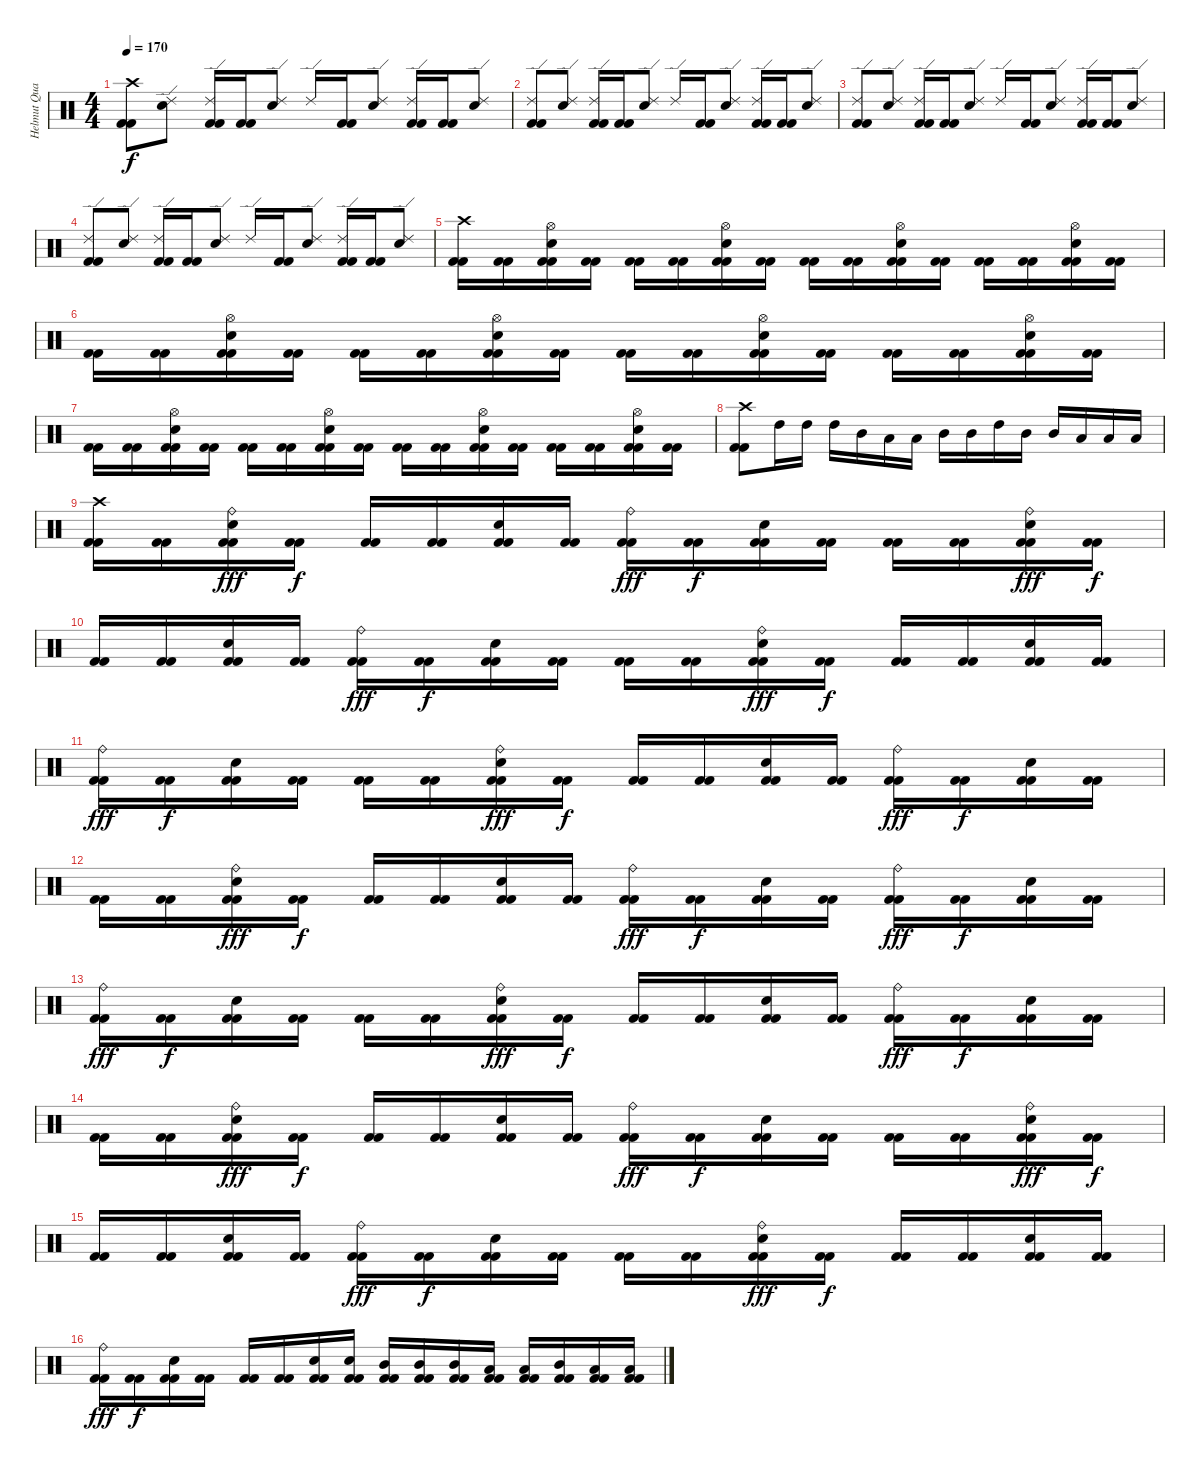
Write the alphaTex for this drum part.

\track ("Helmut Quacken" "Helmut Qua") {instrument percussion}
\staff {score}
\articulation defaults
\ts (4 4)
\tempo 170
\clef neutral
\ks c
("Crash high (hit)" "Kick (hit) 2" "Kick (hit) 2").8{dy f} ("Ride (edge) 2" "Electric Snare (hit)").8 ("Ride (edge) 2" "Kick (hit) 2" "Kick (hit) 2").16 ("Kick (hit) 2" "Kick (hit) 2").16 ("Ride (edge) 2" "Electric Snare (hit)").8 "Ride (edge) 2".16 ("Kick (hit) 2" "Kick (hit) 2").16 ("Ride (edge) 2" "Electric Snare (hit)").8 ("Ride (edge) 2" "Kick (hit) 2" "Kick (hit) 2").16 ("Kick (hit) 2" "Kick (hit) 2").16 ("Ride (edge) 2" "Electric Snare (hit)").8 |
("Ride (edge) 2" "Kick (hit) 2" "Kick (hit) 2").8 ("Ride (edge) 2" "Electric Snare (hit)").8 ("Ride (edge) 2" "Kick (hit) 2" "Kick (hit) 2").16 ("Kick (hit) 2" "Kick (hit) 2").16 ("Ride (edge) 2" "Electric Snare (hit)").8 "Ride (edge) 2".16 ("Kick (hit) 2" "Kick (hit) 2").16 ("Ride (edge) 2" "Electric Snare (hit)").8 ("Ride (edge) 2" "Kick (hit) 2" "Kick (hit) 2").16 ("Kick (hit) 2" "Kick (hit) 2").16 ("Ride (edge) 2" "Electric Snare (hit)").8 |
("Ride (edge) 2" "Kick (hit) 2" "Kick (hit) 2").8 ("Ride (edge) 2" "Electric Snare (hit)").8 ("Ride (edge) 2" "Kick (hit) 2" "Kick (hit) 2").16 ("Kick (hit) 2" "Kick (hit) 2").16 ("Ride (edge) 2" "Electric Snare (hit)").8 "Ride (edge) 2".16 ("Kick (hit) 2" "Kick (hit) 2").16 ("Ride (edge) 2" "Electric Snare (hit)").8 ("Ride (edge) 2" "Kick (hit) 2" "Kick (hit) 2").16 ("Kick (hit) 2" "Kick (hit) 2").16 ("Ride (edge) 2" "Electric Snare (hit)").8 |
("Ride (edge) 2" "Kick (hit) 2" "Kick (hit) 2").8 ("Ride (edge) 2" "Electric Snare (hit)").8 ("Ride (edge) 2" "Kick (hit) 2" "Kick (hit) 2").16 ("Kick (hit) 2" "Kick (hit) 2").16 ("Ride (edge) 2" "Electric Snare (hit)").8 "Ride (edge) 2".16 ("Kick (hit) 2" "Kick (hit) 2").16 ("Ride (edge) 2" "Electric Snare (hit)").8 ("Ride (edge) 2" "Kick (hit) 2" "Kick (hit) 2").16 ("Kick (hit) 2" "Kick (hit) 2").16 ("Ride (edge) 2" "Electric Snare (hit)").8 |
("Crash high (hit)" "Kick (hit) 2" "Kick (hit) 2").16 ("Kick (hit) 2" "Kick (hit) 2").16 ("Hi-Hat (open)" "Electric Snare (hit)" "Kick (hit) 2" "Kick (hit) 2").16 ("Kick (hit) 2" "Kick (hit) 2").16 ("Kick (hit) 2" "Kick (hit) 2").16 ("Kick (hit) 2" "Kick (hit) 2").16 ("Hi-Hat (open)" "Electric Snare (hit)" "Kick (hit) 2" "Kick (hit) 2").16 ("Kick (hit) 2" "Kick (hit) 2").16 ("Kick (hit) 2" "Kick (hit) 2").16 ("Kick (hit) 2" "Kick (hit) 2").16 ("Hi-Hat (open)" "Electric Snare (hit)" "Kick (hit) 2" "Kick (hit) 2").16 ("Kick (hit) 2" "Kick (hit) 2").16 ("Kick (hit) 2" "Kick (hit) 2").16 ("Kick (hit) 2" "Kick (hit) 2").16 ("Hi-Hat (open)" "Electric Snare (hit)" "Kick (hit) 2" "Kick (hit) 2").16 ("Kick (hit) 2" "Kick (hit) 2").16 |
("Kick (hit) 2" "Kick (hit) 2").16 ("Kick (hit) 2" "Kick (hit) 2").16 ("Hi-Hat (open)" "Electric Snare (hit)" "Kick (hit) 2" "Kick (hit) 2").16 ("Kick (hit) 2" "Kick (hit) 2").16 ("Kick (hit) 2" "Kick (hit) 2").16 ("Kick (hit) 2" "Kick (hit) 2").16 ("Hi-Hat (open)" "Electric Snare (hit)" "Kick (hit) 2" "Kick (hit) 2").16 ("Kick (hit) 2" "Kick (hit) 2").16 ("Kick (hit) 2" "Kick (hit) 2").16 ("Kick (hit) 2" "Kick (hit) 2").16 ("Hi-Hat (open)" "Electric Snare (hit)" "Kick (hit) 2" "Kick (hit) 2").16 ("Kick (hit) 2" "Kick (hit) 2").16 ("Kick (hit) 2" "Kick (hit) 2").16 ("Kick (hit) 2" "Kick (hit) 2").16 ("Hi-Hat (open)" "Electric Snare (hit)" "Kick (hit) 2" "Kick (hit) 2").16 ("Kick (hit) 2" "Kick (hit) 2").16 |
("Kick (hit) 2" "Kick (hit) 2").16 ("Kick (hit) 2" "Kick (hit) 2").16 ("Hi-Hat (open)" "Electric Snare (hit)" "Kick (hit) 2" "Kick (hit) 2").16 ("Kick (hit) 2" "Kick (hit) 2").16 ("Kick (hit) 2" "Kick (hit) 2").16 ("Kick (hit) 2" "Kick (hit) 2").16 ("Hi-Hat (open)" "Electric Snare (hit)" "Kick (hit) 2" "Kick (hit) 2").16 ("Kick (hit) 2" "Kick (hit) 2").16 ("Kick (hit) 2" "Kick (hit) 2").16 ("Kick (hit) 2" "Kick (hit) 2").16 ("Hi-Hat (open)" "Electric Snare (hit)" "Kick (hit) 2" "Kick (hit) 2").16 ("Kick (hit) 2" "Kick (hit) 2").16 ("Kick (hit) 2" "Kick (hit) 2").16 ("Kick (hit) 2" "Kick (hit) 2").16 ("Hi-Hat (open)" "Electric Snare (hit)" "Kick (hit) 2" "Kick (hit) 2").16 ("Kick (hit) 2" "Kick (hit) 2").16 |
("Crash high (hit)" "Kick (hit) 2" "Kick (hit) 2").8 "High Tom (hit)".16 "High Tom (hit)".16 "High Tom (hit)".16 "Mid Tom (hit)".16 "Low Tom (hit)".16 "Low Tom (hit)".16 "Mid Tom (hit)".16 "Mid Tom (hit)".16 "High Tom (hit)".16 "Mid Tom (hit)".16 "Mid Tom (hit)".16 "Low Tom (hit)".16 "Low Tom (hit)".16 "Low Tom (hit)".16 |
("Crash high (hit)" "Kick (hit) 2" "Kick (hit) 2").16 ("Kick (hit) 2" "Kick (hit) 2").16 ("Ride (bell)" "Electric Snare (hit)" "Kick (hit) 2" "Kick (hit) 2").16{dy fff} ("Kick (hit) 2" "Kick (hit) 2").16{dy f} ("Kick (hit) 2" "Kick (hit) 2").16 ("Kick (hit) 2" "Kick (hit) 2").16 ("Electric Snare (hit)" "Kick (hit) 2" "Kick (hit) 2").16 ("Kick (hit) 2" "Kick (hit) 2").16 ("Ride (bell)" "Kick (hit) 2" "Kick (hit) 2").16{dy fff} ("Kick (hit) 2" "Kick (hit) 2").16{dy f} ("Electric Snare (hit)" "Kick (hit) 2" "Kick (hit) 2").16 ("Kick (hit) 2" "Kick (hit) 2").16 ("Kick (hit) 2" "Kick (hit) 2").16 ("Kick (hit) 2" "Kick (hit) 2").16 ("Ride (bell)" "Electric Snare (hit)" "Kick (hit) 2" "Kick (hit) 2").16{dy fff} ("Kick (hit) 2" "Kick (hit) 2").16{dy f} |
("Kick (hit) 2" "Kick (hit) 2").16 ("Kick (hit) 2" "Kick (hit) 2").16 ("Electric Snare (hit)" "Kick (hit) 2" "Kick (hit) 2").16 ("Kick (hit) 2" "Kick (hit) 2").16 ("Ride (bell)" "Kick (hit) 2" "Kick (hit) 2").16{dy fff} ("Kick (hit) 2" "Kick (hit) 2").16{dy f} ("Electric Snare (hit)" "Kick (hit) 2" "Kick (hit) 2").16 ("Kick (hit) 2" "Kick (hit) 2").16 ("Kick (hit) 2" "Kick (hit) 2").16 ("Kick (hit) 2" "Kick (hit) 2").16 ("Ride (bell)" "Electric Snare (hit)" "Kick (hit) 2" "Kick (hit) 2").16{dy fff} ("Kick (hit) 2" "Kick (hit) 2").16{dy f} ("Kick (hit) 2" "Kick (hit) 2").16 ("Kick (hit) 2" "Kick (hit) 2").16 ("Electric Snare (hit)" "Kick (hit) 2" "Kick (hit) 2").16 ("Kick (hit) 2" "Kick (hit) 2").16 |
("Ride (bell)" "Kick (hit) 2" "Kick (hit) 2").16{dy fff} ("Kick (hit) 2" "Kick (hit) 2").16{dy f} ("Electric Snare (hit)" "Kick (hit) 2" "Kick (hit) 2").16 ("Kick (hit) 2" "Kick (hit) 2").16 ("Kick (hit) 2" "Kick (hit) 2").16 ("Kick (hit) 2" "Kick (hit) 2").16 ("Ride (bell)" "Electric Snare (hit)" "Kick (hit) 2" "Kick (hit) 2").16{dy fff} ("Kick (hit) 2" "Kick (hit) 2").16{dy f} ("Kick (hit) 2" "Kick (hit) 2").16 ("Kick (hit) 2" "Kick (hit) 2").16 ("Electric Snare (hit)" "Kick (hit) 2" "Kick (hit) 2").16 ("Kick (hit) 2" "Kick (hit) 2").16 ("Ride (bell)" "Kick (hit) 2" "Kick (hit) 2").16{dy fff} ("Kick (hit) 2" "Kick (hit) 2").16{dy f} ("Electric Snare (hit)" "Kick (hit) 2" "Kick (hit) 2").16 ("Kick (hit) 2" "Kick (hit) 2").16 |
("Kick (hit) 2" "Kick (hit) 2").16 ("Kick (hit) 2" "Kick (hit) 2").16 ("Ride (bell)" "Electric Snare (hit)" "Kick (hit) 2" "Kick (hit) 2").16{dy fff} ("Kick (hit) 2" "Kick (hit) 2").16{dy f} ("Kick (hit) 2" "Kick (hit) 2").16 ("Kick (hit) 2" "Kick (hit) 2").16 ("Electric Snare (hit)" "Kick (hit) 2" "Kick (hit) 2").16 ("Kick (hit) 2" "Kick (hit) 2").16 ("Ride (bell)" "Kick (hit) 2" "Kick (hit) 2").16{dy fff} ("Kick (hit) 2" "Kick (hit) 2").16{dy f} ("Electric Snare (hit)" "Kick (hit) 2" "Kick (hit) 2").16 ("Kick (hit) 2" "Kick (hit) 2").16 ("Ride (bell)" "Kick (hit) 2" "Kick (hit) 2").16{dy fff} ("Kick (hit) 2" "Kick (hit) 2").16{dy f} ("Electric Snare (hit)" "Kick (hit) 2" "Kick (hit) 2").16 ("Kick (hit) 2" "Kick (hit) 2").16 |
("Ride (bell)" "Kick (hit) 2" "Kick (hit) 2").16{dy fff} ("Kick (hit) 2" "Kick (hit) 2").16{dy f} ("Electric Snare (hit)" "Kick (hit) 2" "Kick (hit) 2").16 ("Kick (hit) 2" "Kick (hit) 2").16 ("Kick (hit) 2" "Kick (hit) 2").16 ("Kick (hit) 2" "Kick (hit) 2").16 ("Ride (bell)" "Electric Snare (hit)" "Kick (hit) 2" "Kick (hit) 2").16{dy fff} ("Kick (hit) 2" "Kick (hit) 2").16{dy f} ("Kick (hit) 2" "Kick (hit) 2").16 ("Kick (hit) 2" "Kick (hit) 2").16 ("Electric Snare (hit)" "Kick (hit) 2" "Kick (hit) 2").16 ("Kick (hit) 2" "Kick (hit) 2").16 ("Ride (bell)" "Kick (hit) 2" "Kick (hit) 2").16{dy fff} ("Kick (hit) 2" "Kick (hit) 2").16{dy f} ("Electric Snare (hit)" "Kick (hit) 2" "Kick (hit) 2").16 ("Kick (hit) 2" "Kick (hit) 2").16 |
("Kick (hit) 2" "Kick (hit) 2").16 ("Kick (hit) 2" "Kick (hit) 2").16 ("Ride (bell)" "Electric Snare (hit)" "Kick (hit) 2" "Kick (hit) 2").16{dy fff} ("Kick (hit) 2" "Kick (hit) 2").16{dy f} ("Kick (hit) 2" "Kick (hit) 2").16 ("Kick (hit) 2" "Kick (hit) 2").16 ("Electric Snare (hit)" "Kick (hit) 2" "Kick (hit) 2").16 ("Kick (hit) 2" "Kick (hit) 2").16 ("Ride (bell)" "Kick (hit) 2" "Kick (hit) 2").16{dy fff} ("Kick (hit) 2" "Kick (hit) 2").16{dy f} ("Electric Snare (hit)" "Kick (hit) 2" "Kick (hit) 2").16 ("Kick (hit) 2" "Kick (hit) 2").16 ("Kick (hit) 2" "Kick (hit) 2").16 ("Kick (hit) 2" "Kick (hit) 2").16 ("Ride (bell)" "Electric Snare (hit)" "Kick (hit) 2" "Kick (hit) 2").16{dy fff} ("Kick (hit) 2" "Kick (hit) 2").16{dy f} |
("Kick (hit) 2" "Kick (hit) 2").16 ("Kick (hit) 2" "Kick (hit) 2").16 ("Electric Snare (hit)" "Kick (hit) 2" "Kick (hit) 2").16 ("Kick (hit) 2" "Kick (hit) 2").16 ("Ride (bell)" "Kick (hit) 2" "Kick (hit) 2").16{dy fff} ("Kick (hit) 2" "Kick (hit) 2").16{dy f} ("Electric Snare (hit)" "Kick (hit) 2" "Kick (hit) 2").16 ("Kick (hit) 2" "Kick (hit) 2").16 ("Kick (hit) 2" "Kick (hit) 2").16 ("Kick (hit) 2" "Kick (hit) 2").16 ("Ride (bell)" "Electric Snare (hit)" "Kick (hit) 2" "Kick (hit) 2").16{dy fff} ("Kick (hit) 2" "Kick (hit) 2").16{dy f} ("Kick (hit) 2" "Kick (hit) 2").16 ("Kick (hit) 2" "Kick (hit) 2").16 ("Electric Snare (hit)" "Kick (hit) 2" "Kick (hit) 2").16 ("Kick (hit) 2" "Kick (hit) 2").16 |
("Ride (bell)" "Kick (hit) 2" "Kick (hit) 2").16{dy fff} ("Kick (hit) 2" "Kick (hit) 2").16{dy f} ("Electric Snare (hit)" "Kick (hit) 2" "Kick (hit) 2").16 ("Kick (hit) 2" "Kick (hit) 2").16 ("Kick (hit) 2" "Kick (hit) 2").16 ("Kick (hit) 2" "Kick (hit) 2").16 ("Electric Snare (hit)" "Kick (hit) 2" "Kick (hit) 2").16 ("Electric Snare (hit)" "Kick (hit) 2" "Kick (hit) 2").16 ("Mid Tom (hit)" "Kick (hit) 2" "Kick (hit) 2").16 ("Mid Tom (hit)" "Kick (hit) 2" "Kick (hit) 2").16 ("Mid Tom (hit)" "Kick (hit) 2" "Kick (hit) 2").16 ("Low Tom (hit)" "Kick (hit) 2" "Kick (hit) 2").16 ("Low Tom (hit)" "Kick (hit) 2" "Kick (hit) 2").16 ("Mid Tom (hit)" "Kick (hit) 2" "Kick (hit) 2").16 ("Low Tom (hit)" "Kick (hit) 2" "Kick (hit) 2").16 ("Low Tom (hit)" "Kick (hit) 2" "Kick (hit) 2").16
